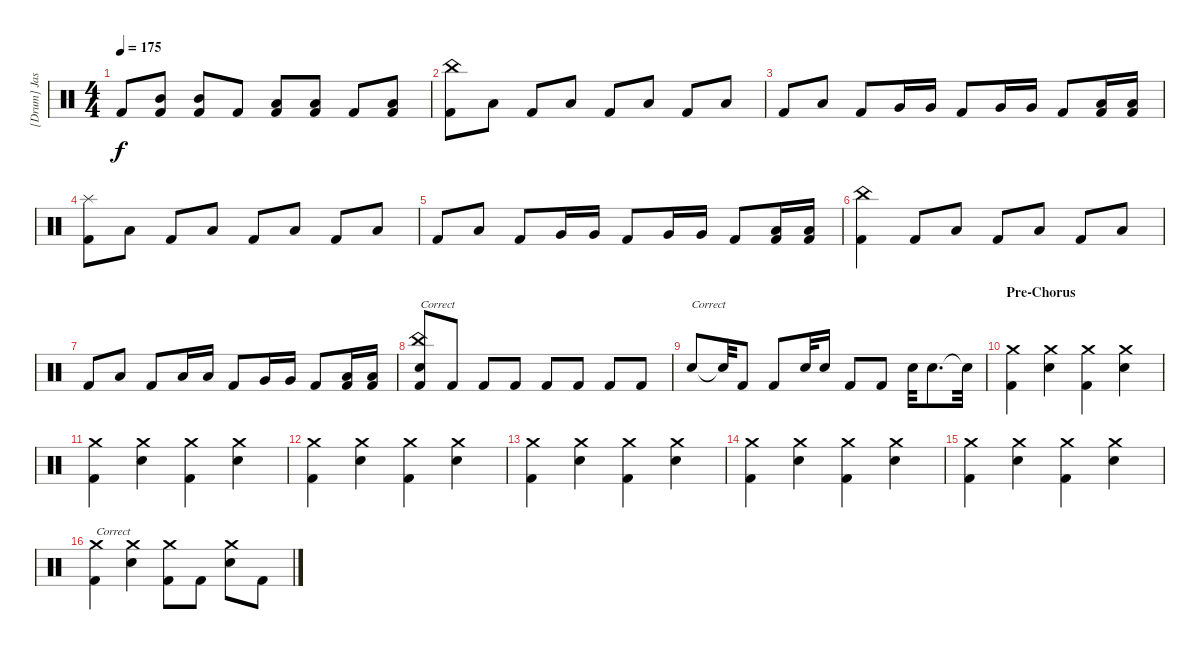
\track ("[Drum] Jason \"Shakes\" West" "[Drum] Jas") {instrument percussion}
\staff {score}
\articulation defaults
\ts (4 4)
\tempo 175
\clef neutral
\ks c "Kick (hit) 2".8{dy f}
("Mid Tom (hit)" "Kick (hit) 2").8 ("Mid Tom (hit)" "Kick (hit) 2").8 "Kick (hit) 2".8 ("Low Tom (hit)" "Kick (hit) 2").8 ("Low Tom (hit)" "Kick (hit) 2").8 "Kick (hit) 2".8 ("Low Floor Tom (hit)" "Kick (hit) 2").8 |
("China (hit)" "Kick (hit) 2").8 "Low Floor Tom (hit)".8 "Kick (hit) 2".8 "Low Floor Tom (hit)".8 "Kick (hit) 2".8 "Low Floor Tom (hit)".8 "Kick (hit) 2".8 "Low Floor Tom (hit)".8 |
"Kick (hit) 2".8 "Low Floor Tom (hit)".8 "Kick (hit) 2".8 "Very Low Tom (hit)".16 "Very Low Tom (hit)".16 "Kick (hit) 2".8 "Very Low Tom (hit)".16 "Very Low Tom (hit)".16 "Kick (hit) 2".8 ("Low Floor Tom (hit)" "Kick (hit) 2").16 ("Low Floor Tom (hit)" "Kick (hit) 2").16 |
("Splash (hit)" "Kick (hit) 2").8 "Low Floor Tom (hit)".8 "Kick (hit) 2".8 "Low Floor Tom (hit)".8 "Kick (hit) 2".8 "Low Floor Tom (hit)".8 "Kick (hit) 2".8 "Low Floor Tom (hit)".8 |
"Kick (hit) 2".8 "Low Floor Tom (hit)".8 "Kick (hit) 2".8 "Very Low Tom (hit)".16 "Very Low Tom (hit)".16 "Kick (hit) 2".8 "Very Low Tom (hit)".16 "Very Low Tom (hit)".16 "Kick (hit) 2".8 ("Low Floor Tom (hit)" "Kick (hit) 2").16 ("Low Floor Tom (hit)" "Kick (hit) 2").16 |
("China (hit)" "Kick (hit) 2").4 "Kick (hit) 2".8 "Low Floor Tom (hit)".8 "Kick (hit) 2".8 "Low Floor Tom (hit)".8 "Kick (hit) 2".8 "Low Floor Tom (hit)".8 |
"Kick (hit) 2".8 "Low Floor Tom (hit)".8 "Kick (hit) 2".8 "Low Tom (hit)".16 "Low Tom (hit)".16 "Kick (hit) 2".8 "Very Low Tom (hit)".16 "Very Low Tom (hit)".16 "Kick (hit) 2".8 ("Low Floor Tom (hit)" "Kick (hit) 2").16 ("Low Floor Tom (hit)" "Kick (hit) 2").16 |
("Electric Snare (hit)" "China (hit)" "Kick (hit) 2").8{txt "Correct"} "Kick (hit) 2".8 "Kick (hit) 2".8 "Kick (hit) 2".8 "Kick (hit) 2".8 "Kick (hit) 2".8 "Kick (hit) 2".8 "Kick (hit) 2".8 |
"Electric Snare (hit)".8{txt "Correct"} "Electric Snare (hit)"{t}.32 "Kick (hit) 2".8 "Kick (hit) 2".8 "Electric Snare (hit)".32 "Electric Snare (hit)".16 "Kick (hit) 2".8 "Kick (hit) 2".8 "Electric Snare (hit)".32 "Electric Snare (hit)".8{d} "Electric Snare (hit)"{t}.32 |
\section ("" "Pre-Chorus")
("Crash medium (hit)" "Kick (hit) 2").4 ("Crash medium (hit)" "Electric Snare (hit)").4 ("Crash medium (hit)" "Kick (hit) 2").4 ("Crash medium (hit)" "Electric Snare (hit)").4 |
("Crash medium (hit)" "Kick (hit) 2").4 ("Crash medium (hit)" "Electric Snare (hit)").4 ("Crash medium (hit)" "Kick (hit) 2").4 ("Crash medium (hit)" "Electric Snare (hit)").4 |
("Crash medium (hit)" "Kick (hit) 2").4 ("Crash medium (hit)" "Electric Snare (hit)").4 ("Crash medium (hit)" "Kick (hit) 2").4 ("Crash medium (hit)" "Electric Snare (hit)").4 |
("Crash medium (hit)" "Kick (hit) 2").4 ("Crash medium (hit)" "Electric Snare (hit)").4 ("Crash medium (hit)" "Kick (hit) 2").4 ("Crash medium (hit)" "Electric Snare (hit)").4 |
("Crash medium (hit)" "Kick (hit) 2").4 ("Crash medium (hit)" "Electric Snare (hit)").4 ("Crash medium (hit)" "Kick (hit) 2").4 ("Crash medium (hit)" "Electric Snare (hit)").4 |
("Crash medium (hit)" "Kick (hit) 2").4 ("Crash medium (hit)" "Electric Snare (hit)").4 ("Crash medium (hit)" "Kick (hit) 2").4 ("Crash medium (hit)" "Electric Snare (hit)").4 |
("Crash medium (hit)" "Kick (hit) 2").4{txt "Correct"} ("Electric Snare (hit)" "Crash medium (hit)").4 ("Kick (hit) 2" "Crash medium (hit)").8 "Kick (hit) 2".8 ("Electric Snare (hit)" "Crash medium (hit)").8 "Kick (hit) 2".8
